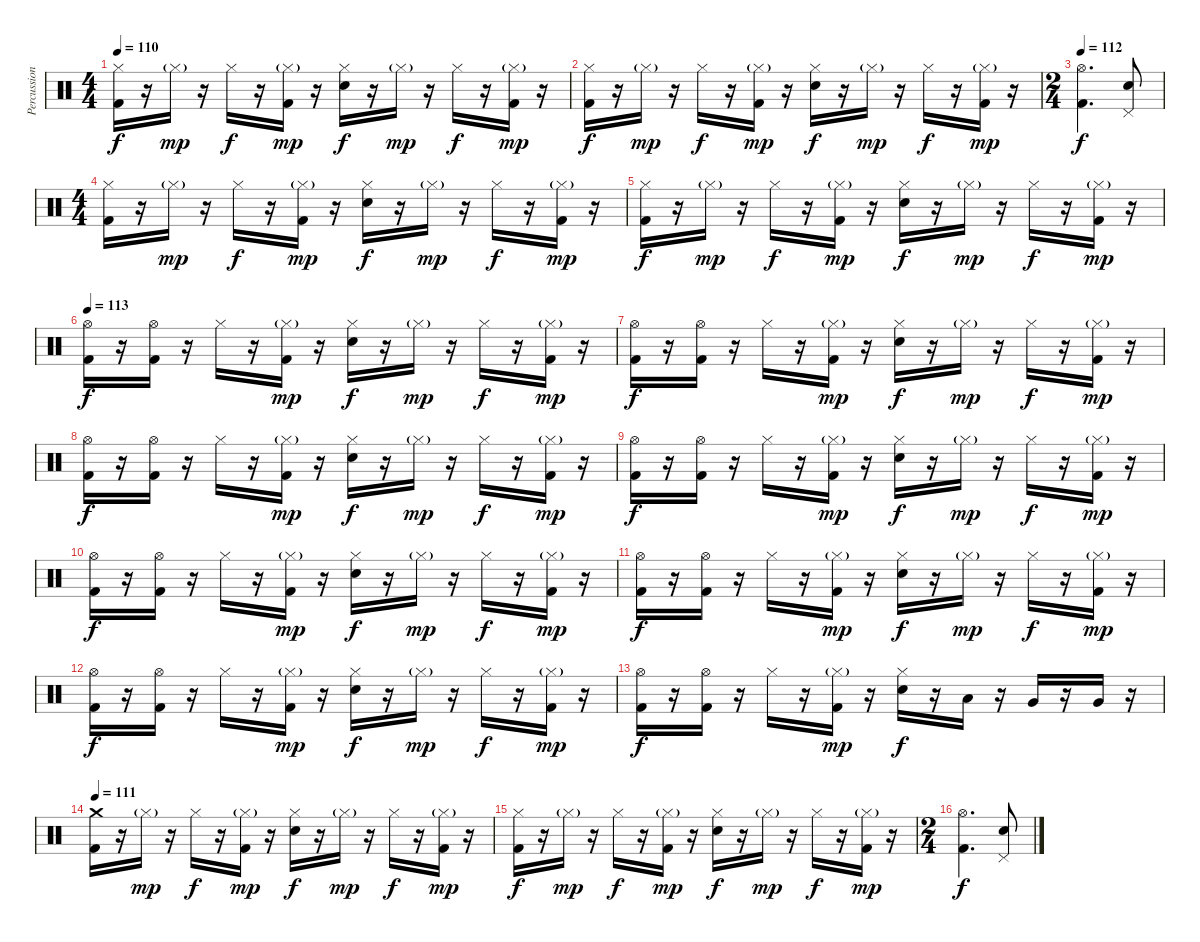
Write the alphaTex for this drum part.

\track ("Percussion" "Percussion") {instrument percussion}
\staff {score}
\articulation defaults
\ts (4 4)
\tempo 110
\clef neutral
\ks c
("Hi-Hat (closed)" "Kick (hit) 2").16{dy f} r.16 "Hi-Hat (closed)"{g}.16{dy mp} r.16 "Hi-Hat (closed)".16{dy f} r.16 ("Hi-Hat (closed)"{g} "Kick (hit) 2").16{dy mp} r.16 ("Hi-Hat (closed)" "Electric Snare (hit)").16{dy f} r.16 "Hi-Hat (closed)"{g}.16{dy mp} r.16 "Hi-Hat (closed)".16{dy f} r.16 ("Hi-Hat (closed)"{g} "Kick (hit) 2").16{dy mp} r.16 |
("Hi-Hat (closed)" "Kick (hit) 2").16{dy f} r.16 "Hi-Hat (closed)"{g}.16{dy mp} r.16 "Hi-Hat (closed)".16{dy f} r.16 ("Hi-Hat (closed)"{g} "Kick (hit) 2").16{dy mp} r.16 ("Hi-Hat (closed)" "Electric Snare (hit)").16{dy f} r.16 "Hi-Hat (closed)"{g}.16{dy mp} r.16 "Hi-Hat (closed)".16{dy f} r.16 ("Hi-Hat (closed)"{g} "Kick (hit) 2").16{dy mp} r.16 |
\ts (2 4)
\tempo 112
("Hi-Hat (open)" "Kick (hit) 2").4{d dy f} ("Pedal Hi-Hat (hit)" "Electric Snare (hit)").8 |
\ts (4 4)
("Hi-Hat (closed)" "Kick (hit) 2").16 r.16 "Hi-Hat (closed)"{g}.16{dy mp} r.16 "Hi-Hat (closed)".16{dy f} r.16 ("Hi-Hat (closed)"{g} "Kick (hit) 2").16{dy mp} r.16 ("Hi-Hat (closed)" "Electric Snare (hit)").16{dy f} r.16 "Hi-Hat (closed)"{g}.16{dy mp} r.16 "Hi-Hat (closed)".16{dy f} r.16 ("Hi-Hat (closed)"{g} "Kick (hit) 2").16{dy mp} r.16 |
("Hi-Hat (closed)" "Kick (hit) 2").16{dy f} r.16 "Hi-Hat (closed)"{g}.16{dy mp} r.16 "Hi-Hat (closed)".16{dy f} r.16 ("Hi-Hat (closed)"{g} "Kick (hit) 2").16{dy mp} r.16 ("Hi-Hat (closed)" "Electric Snare (hit)").16{dy f} r.16 "Hi-Hat (closed)"{g}.16{dy mp} r.16 "Hi-Hat (closed)".16{dy f} r.16 ("Hi-Hat (closed)"{g} "Kick (hit) 2").16{dy mp} r.16 |
\tempo 113
("Hi-Hat (open)" "Kick (hit) 2").16{dy f} r.16 ("Hi-Hat (open)" "Kick (hit) 2").16 r.16 "Hi-Hat (closed)".16 r.16 ("Hi-Hat (closed)"{g} "Kick (hit) 2").16{dy mp} r.16 ("Hi-Hat (closed)" "Electric Snare (hit)").16{dy f} r.16 "Hi-Hat (closed)"{g}.16{dy mp} r.16 "Hi-Hat (closed)".16{dy f} r.16 ("Hi-Hat (closed)"{g} "Kick (hit) 2").16{dy mp} r.16 |
("Hi-Hat (open)" "Kick (hit) 2").16{dy f} r.16 ("Hi-Hat (open)" "Kick (hit) 2").16 r.16 "Hi-Hat (closed)".16 r.16 ("Hi-Hat (closed)"{g} "Kick (hit) 2").16{dy mp} r.16 ("Hi-Hat (closed)" "Electric Snare (hit)").16{dy f} r.16 "Hi-Hat (closed)"{g}.16{dy mp} r.16 "Hi-Hat (closed)".16{dy f} r.16 ("Hi-Hat (closed)"{g} "Kick (hit) 2").16{dy mp} r.16 |
("Hi-Hat (open)" "Kick (hit) 2").16{dy f} r.16 ("Hi-Hat (open)" "Kick (hit) 2").16 r.16 "Hi-Hat (closed)".16 r.16 ("Hi-Hat (closed)"{g} "Kick (hit) 2").16{dy mp} r.16 ("Hi-Hat (closed)" "Electric Snare (hit)").16{dy f} r.16 "Hi-Hat (closed)"{g}.16{dy mp} r.16 "Hi-Hat (closed)".16{dy f} r.16 ("Hi-Hat (closed)"{g} "Kick (hit) 2").16{dy mp} r.16 |
("Hi-Hat (open)" "Kick (hit) 2").16{dy f} r.16 ("Hi-Hat (open)" "Kick (hit) 2").16 r.16 "Hi-Hat (closed)".16 r.16 ("Hi-Hat (closed)"{g} "Kick (hit) 2").16{dy mp} r.16 ("Hi-Hat (closed)" "Electric Snare (hit)").16{dy f} r.16 "Hi-Hat (closed)"{g}.16{dy mp} r.16 "Hi-Hat (closed)".16{dy f} r.16 ("Hi-Hat (closed)"{g} "Kick (hit) 2").16{dy mp} r.16 |
("Hi-Hat (open)" "Kick (hit) 2").16{dy f} r.16 ("Hi-Hat (open)" "Kick (hit) 2").16 r.16 "Hi-Hat (closed)".16 r.16 ("Hi-Hat (closed)"{g} "Kick (hit) 2").16{dy mp} r.16 ("Hi-Hat (closed)" "Electric Snare (hit)").16{dy f} r.16 "Hi-Hat (closed)"{g}.16{dy mp} r.16 "Hi-Hat (closed)".16{dy f} r.16 ("Hi-Hat (closed)"{g} "Kick (hit) 2").16{dy mp} r.16 |
("Hi-Hat (open)" "Kick (hit) 2").16{dy f} r.16 ("Hi-Hat (open)" "Kick (hit) 2").16 r.16 "Hi-Hat (closed)".16 r.16 ("Hi-Hat (closed)"{g} "Kick (hit) 2").16{dy mp} r.16 ("Hi-Hat (closed)" "Electric Snare (hit)").16{dy f} r.16 "Hi-Hat (closed)"{g}.16{dy mp} r.16 "Hi-Hat (closed)".16{dy f} r.16 ("Hi-Hat (closed)"{g} "Kick (hit) 2").16{dy mp} r.16 |
("Hi-Hat (open)" "Kick (hit) 2").16{dy f} r.16 ("Hi-Hat (open)" "Kick (hit) 2").16 r.16 "Hi-Hat (closed)".16 r.16 ("Hi-Hat (closed)"{g} "Kick (hit) 2").16{dy mp} r.16 ("Hi-Hat (closed)" "Electric Snare (hit)").16{dy f} r.16 "Hi-Hat (closed)"{g}.16{dy mp} r.16 "Hi-Hat (closed)".16{dy f} r.16 ("Hi-Hat (closed)"{g} "Kick (hit) 2").16{dy mp} r.16 |
("Hi-Hat (open)" "Kick (hit) 2").16{dy f} r.16 ("Hi-Hat (open)" "Kick (hit) 2").16 r.16 "Hi-Hat (closed)".16 r.16 ("Hi-Hat (closed)"{g} "Kick (hit) 2").16{dy mp} r.16 ("Hi-Hat (closed)" "Electric Snare (hit)").16{dy f} r.16 "Low Tom (hit)".16 r.16 "Very Low Tom (hit)".16 r.16 "Very Low Tom (hit)".16 r.16 |
\tempo 111
("Crash medium (hit)" "Kick (hit) 2").16 r.16 "Hi-Hat (closed)"{g}.16{dy mp} r.16 "Hi-Hat (closed)".16{dy f} r.16 ("Hi-Hat (closed)"{g} "Kick (hit) 2").16{dy mp} r.16 ("Hi-Hat (closed)" "Electric Snare (hit)").16{dy f} r.16 "Hi-Hat (closed)"{g}.16{dy mp} r.16 "Hi-Hat (closed)".16{dy f} r.16 ("Hi-Hat (closed)"{g} "Kick (hit) 2").16{dy mp} r.16 |
("Hi-Hat (closed)" "Kick (hit) 2").16{dy f} r.16 "Hi-Hat (closed)"{g}.16{dy mp} r.16 "Hi-Hat (closed)".16{dy f} r.16 ("Hi-Hat (closed)"{g} "Kick (hit) 2").16{dy mp} r.16 ("Hi-Hat (closed)" "Electric Snare (hit)").16{dy f} r.16 "Hi-Hat (closed)"{g}.16{dy mp} r.16 "Hi-Hat (closed)".16{dy f} r.16 ("Hi-Hat (closed)"{g} "Kick (hit) 2").16{dy mp} r.16 |
\ts (2 4)
("Hi-Hat (open)" "Kick (hit) 2").4{d dy f} ("Pedal Hi-Hat (hit)" "Electric Snare (hit)").8
